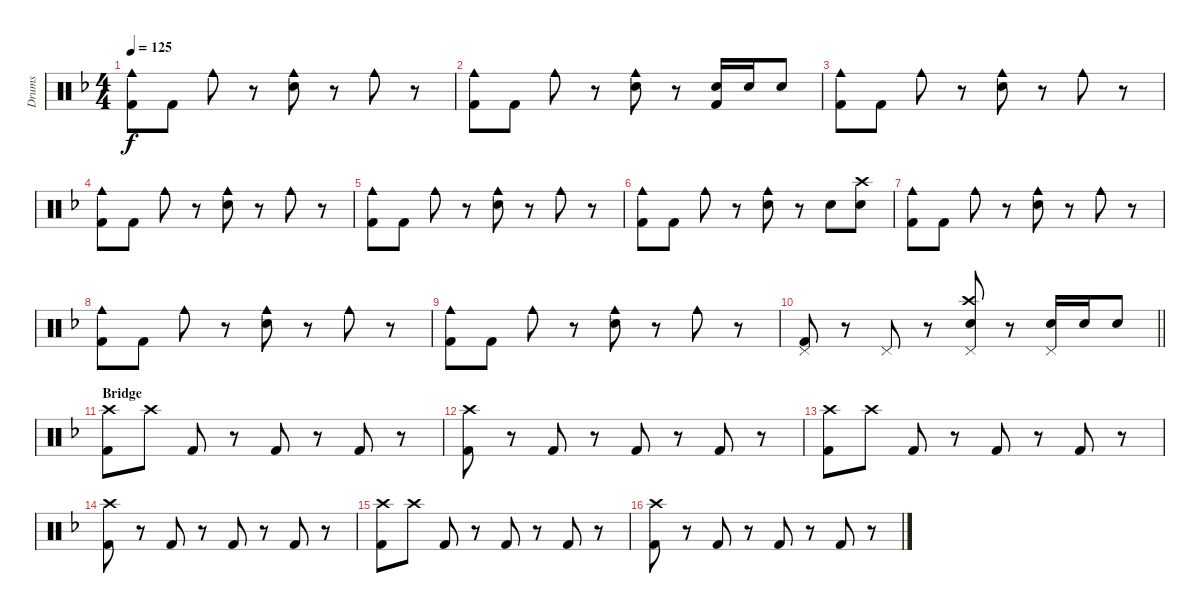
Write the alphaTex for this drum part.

\track ("Drums" "Drums") {instrument percussion}
\staff {score}
\articulation defaults
\ts (4 4)
\tempo 125
\clef neutral
\ks f
("Cowbell medium (hit)" "Kick (hit) 2").8{dy f} "Kick (hit) 2".8 "Cowbell medium (hit)".8 r.8 ("Cowbell medium (hit)" "Electric Snare (hit)").8 r.8 "Cowbell medium (hit)".8 r.8 |
("Cowbell medium (hit)" "Kick (hit) 2").8 "Kick (hit) 2".8 "Cowbell medium (hit)".8 r.8 ("Cowbell medium (hit)" "Electric Snare (hit)").8 r.8 ("Electric Snare (hit)" "Kick (hit) 2").16 "Electric Snare (hit)".16 "Electric Snare (hit)".8 |
("Cowbell medium (hit)" "Kick (hit) 2").8 "Kick (hit) 2".8 "Cowbell medium (hit)".8 r.8 ("Cowbell medium (hit)" "Electric Snare (hit)").8 r.8 "Cowbell medium (hit)".8 r.8 |
("Cowbell medium (hit)" "Kick (hit) 2").8 "Kick (hit) 2".8 "Cowbell medium (hit)".8 r.8 ("Cowbell medium (hit)" "Electric Snare (hit)").8 r.8 "Cowbell medium (hit)".8 r.8 |
("Cowbell medium (hit)" "Kick (hit) 2").8 "Kick (hit) 2".8 "Cowbell medium (hit)".8 r.8 ("Cowbell medium (hit)" "Electric Snare (hit)").8 r.8 "Cowbell medium (hit)".8 r.8 |
("Cowbell medium (hit)" "Kick (hit) 2").8 "Kick (hit) 2".8 "Cowbell medium (hit)".8 r.8 ("Cowbell medium (hit)" "Electric Snare (hit)").8 r.8 "Electric Snare (hit)".8 ("Crash high (hit)" "Electric Snare (hit)").8 |
("Cowbell medium (hit)" "Kick (hit) 2").8 "Kick (hit) 2".8 "Cowbell medium (hit)".8 r.8 ("Cowbell medium (hit)" "Electric Snare (hit)").8 r.8 "Cowbell medium (hit)".8 r.8 |
("Cowbell medium (hit)" "Kick (hit) 2").8 "Kick (hit) 2".8 "Cowbell medium (hit)".8 r.8 ("Cowbell medium (hit)" "Electric Snare (hit)").8 r.8 "Cowbell medium (hit)".8 r.8 |
("Cowbell medium (hit)" "Kick (hit) 2").8 "Kick (hit) 2".8 "Cowbell medium (hit)".8 r.8 ("Cowbell medium (hit)" "Electric Snare (hit)").8 r.8 "Cowbell medium (hit)".8 r.8 |
\barLineRight lightlight
("Pedal Hi-Hat (hit)" "Kick (hit) 2").8 r.8 "Pedal Hi-Hat (hit)".8 r.8 ("Crash high (hit)" "Pedal Hi-Hat (hit)" "Electric Snare (hit)").8 r.8 ("Pedal Hi-Hat (hit)" "Electric Snare (hit)").16 "Electric Snare (hit)".16 "Electric Snare (hit)".8 |
\section ("" "Bridge")
("Crash high (hit)" "Kick (hit) 2").8 "Crash high (hit)".8 "Kick (hit) 2".8 r.8 "Kick (hit) 2".8 r.8 "Kick (hit) 2".8 r.8 |
("Crash high (hit)" "Kick (hit) 2").8 r.8 "Kick (hit) 2".8 r.8 "Kick (hit) 2".8 r.8 "Kick (hit) 2".8 r.8 |
("Crash high (hit)" "Kick (hit) 2").8 "Crash high (hit)".8 "Kick (hit) 2".8 r.8 "Kick (hit) 2".8 r.8 "Kick (hit) 2".8 r.8 |
("Crash high (hit)" "Kick (hit) 2").8 r.8 "Kick (hit) 2".8 r.8 "Kick (hit) 2".8 r.8 "Kick (hit) 2".8 r.8 |
("Crash high (hit)" "Kick (hit) 2").8 "Crash high (hit)".8 "Kick (hit) 2".8 r.8 "Kick (hit) 2".8 r.8 "Kick (hit) 2".8 r.8 |
("Crash high (hit)" "Kick (hit) 2").8 r.8 "Kick (hit) 2".8 r.8 "Kick (hit) 2".8 r.8 "Kick (hit) 2".8 r.8
